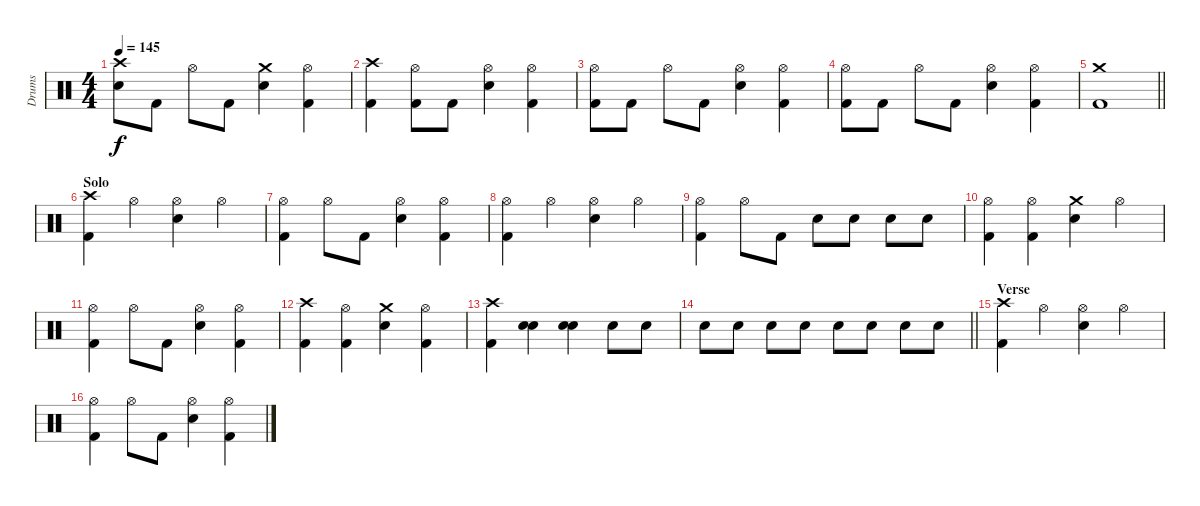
\track ("Drums" "Drums") {instrument percussion}
\staff {score}
\articulation defaults
\ts (4 4)
\tempo 145
\clef neutral
\ks c
("Crash high (hit)" "Snare (hit) 2").8{dy f} "Kick (hit) 2".8 "Hi-Hat (open)".8 "Kick (hit) 2".8 ("Crash medium (hit)" "Snare (hit) 2").4 ("Hi-Hat (open)" "Kick (hit) 2").4 |
("Crash high (hit)" "Kick (hit) 2").4 ("Hi-Hat (open)" "Kick (hit) 2").8 "Kick (hit) 2".8 ("Hi-Hat (open)" "Snare (hit) 2").4 ("Hi-Hat (open)" "Kick (hit) 2").4 |
("Hi-Hat (open)" "Kick (hit) 2").8 "Kick (hit) 2".8 "Hi-Hat (open)".8 "Kick (hit) 2".8 ("Hi-Hat (open)" "Snare (hit) 2").4 ("Hi-Hat (open)" "Kick (hit) 2").4 |
("Hi-Hat (open)" "Kick (hit) 2").8 "Kick (hit) 2".8 "Hi-Hat (open)".8 "Kick (hit) 2".8 ("Hi-Hat (open)" "Snare (hit) 2").4 ("Hi-Hat (open)" "Kick (hit) 2").4 |
\barLineRight lightlight
("Crash medium (hit)" "Kick (hit) 2").1 |
\section ("" "Solo")
("Crash high (hit)" "Kick (hit) 2").4 "Hi-Hat (open)".4 ("Hi-Hat (open)" "Snare (hit) 2").4 "Hi-Hat (open)".4 |
("Hi-Hat (open)" "Kick (hit) 2").4 "Hi-Hat (open)".8 "Kick (hit) 2".8 ("Hi-Hat (open)" "Snare (hit) 2").4 ("Hi-Hat (open)" "Kick (hit) 2").4 |
("Hi-Hat (open)" "Kick (hit) 2").4 "Hi-Hat (open)".4 ("Hi-Hat (open)" "Snare (hit) 2").4 "Hi-Hat (open)".4 |
("Hi-Hat (open)" "Kick (hit) 2").4 "Hi-Hat (open)".8 "Kick (hit) 2".8 "Snare (hit) 2".8 "Snare (hit) 2".8 "Snare (hit) 2".8 "Snare (hit) 2".8 |
("Hi-Hat (open)" "Kick (hit) 2").4 ("Hi-Hat (open)" "Kick (hit) 2").4 ("Crash medium (hit)" "Snare (hit) 2").4 "Hi-Hat (open)".4 |
("Hi-Hat (open)" "Kick (hit) 2").4 "Hi-Hat (open)".8 "Kick (hit) 2".8 ("Hi-Hat (open)" "Snare (hit) 2").4 ("Hi-Hat (open)" "Kick (hit) 2").4 |
("Crash high (hit)" "Kick (hit) 2").4 ("Hi-Hat (open)" "Kick (hit) 2").4 ("Crash medium (hit)" "Snare (hit) 2").4 ("Hi-Hat (open)" "Kick (hit) 2").4 |
("Crash high (hit)" "Kick (hit) 2").4 ("Snare (hit) 2" "Snare (hit) 2").4{bd 120} ("Snare (hit) 2" "Snare (hit) 2").4{bd 120} "Snare (hit) 2".8 "Snare (hit) 2".8 |
\barLineRight lightlight "Snare (hit) 2".8 "Snare (hit) 2".8 "Snare (hit) 2".8 "Snare (hit) 2".8 "Snare (hit) 2".8 "Snare (hit) 2".8 "Snare (hit) 2".8 "Snare (hit) 2".8
|
\section ("" "Verse")
("Crash high (hit)" "Kick (hit) 2").4 "Hi-Hat (open)".4 ("Hi-Hat (open)" "Snare (hit) 2").4 "Hi-Hat (open)".4 |
("Hi-Hat (open)" "Kick (hit) 2").4 "Hi-Hat (open)".8 "Kick (hit) 2".8 ("Hi-Hat (open)" "Snare (hit) 2").4 ("Hi-Hat (open)" "Kick (hit) 2").4
